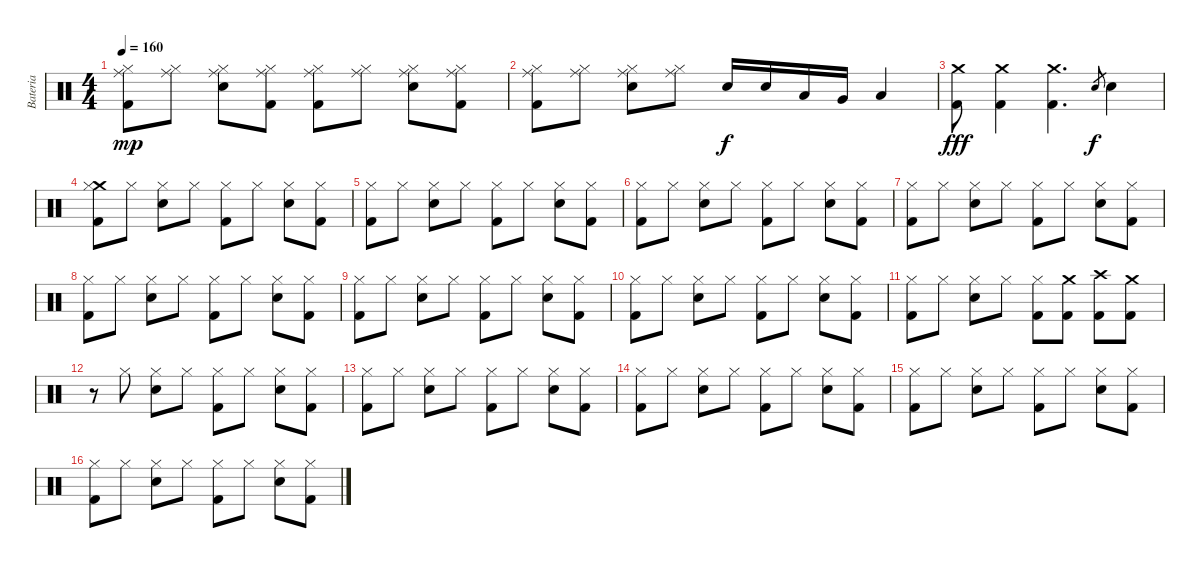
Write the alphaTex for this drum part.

\track ("Bateria" "Bateria") {instrument percussion}
\staff {score}
\articulation defaults
\ts (4 4)
\tempo 160
\clef neutral
\ks c
("Hi-Hat (closed)" "Kick (hit) 2" "Ride (middle)").8{dy mp} ("Hi-Hat (closed)" "Ride (middle)").8 ("Hi-Hat (closed)" "Electric Snare (hit)" "Ride (middle)").8 ("Hi-Hat (closed)" "Kick (hit) 2" "Ride (middle)").8 ("Hi-Hat (closed)" "Kick (hit) 2" "Ride (middle)").8 ("Hi-Hat (closed)" "Ride (middle)").8 ("Hi-Hat (closed)" "Electric Snare (hit)" "Ride (middle)").8 ("Hi-Hat (closed)" "Kick (hit) 2" "Ride (middle)").8 |
("Hi-Hat (closed)" "Kick (hit) 2" "Ride (middle)").8 ("Hi-Hat (closed)" "Ride (middle)").8 ("Hi-Hat (closed)" "Electric Snare (hit)" "Ride (middle)").8 ("Hi-Hat (closed)" "Ride (middle)").8 "Electric Snare (hit)".16{dy f} "Electric Snare (hit)".16 "Low Tom (hit)".16 "Very Low Tom (hit)".16 "Low Tom (hit)".4 |
("Crash medium (hit)" "Kick (hit) 2").8{dy fff} ("Crash medium (hit)" "Kick (hit) 2").4 ("Crash medium (hit)" "Kick (hit) 2").4{d} "Electric Snare (hit)".8{gr dy f} "Electric Snare (hit)".4 |
("Crash medium (hit)" "Hi-Hat (closed)" "Kick (hit) 2").8 "Hi-Hat (closed)".8 ("Hi-Hat (closed)" "Electric Snare (hit)").8 "Hi-Hat (closed)".8 ("Hi-Hat (closed)" "Kick (hit) 2").8 "Hi-Hat (closed)".8 ("Hi-Hat (closed)" "Electric Snare (hit)").8 ("Hi-Hat (closed)" "Kick (hit) 2").8 |
("Hi-Hat (closed)" "Kick (hit) 2").8 "Hi-Hat (closed)".8 ("Hi-Hat (closed)" "Electric Snare (hit)").8 "Hi-Hat (closed)".8 ("Hi-Hat (closed)" "Kick (hit) 2").8 "Hi-Hat (closed)".8 ("Hi-Hat (closed)" "Electric Snare (hit)").8 ("Hi-Hat (closed)" "Kick (hit) 2").8 |
("Hi-Hat (closed)" "Kick (hit) 2").8 "Hi-Hat (closed)".8 ("Hi-Hat (closed)" "Electric Snare (hit)").8 "Hi-Hat (closed)".8 ("Hi-Hat (closed)" "Kick (hit) 2").8 "Hi-Hat (closed)".8 ("Hi-Hat (closed)" "Electric Snare (hit)").8 ("Hi-Hat (closed)" "Kick (hit) 2").8 |
("Hi-Hat (closed)" "Kick (hit) 2").8 "Hi-Hat (closed)".8 ("Hi-Hat (closed)" "Electric Snare (hit)").8 "Hi-Hat (closed)".8 ("Hi-Hat (closed)" "Kick (hit) 2").8 "Hi-Hat (closed)".8 ("Hi-Hat (closed)" "Electric Snare (hit)").8 ("Hi-Hat (closed)" "Kick (hit) 2").8 |
("Hi-Hat (closed)" "Kick (hit) 2").8 "Hi-Hat (closed)".8 ("Hi-Hat (closed)" "Electric Snare (hit)").8 "Hi-Hat (closed)".8 ("Hi-Hat (closed)" "Kick (hit) 2").8 "Hi-Hat (closed)".8 ("Hi-Hat (closed)" "Electric Snare (hit)").8 ("Hi-Hat (closed)" "Kick (hit) 2").8 |
("Hi-Hat (closed)" "Kick (hit) 2").8 "Hi-Hat (closed)".8 ("Hi-Hat (closed)" "Electric Snare (hit)").8 "Hi-Hat (closed)".8 ("Hi-Hat (closed)" "Kick (hit) 2").8 "Hi-Hat (closed)".8 ("Hi-Hat (closed)" "Electric Snare (hit)").8 ("Hi-Hat (closed)" "Kick (hit) 2").8 |
("Hi-Hat (closed)" "Kick (hit) 2").8 "Hi-Hat (closed)".8 ("Hi-Hat (closed)" "Electric Snare (hit)").8 "Hi-Hat (closed)".8 ("Hi-Hat (closed)" "Kick (hit) 2").8 "Hi-Hat (closed)".8 ("Hi-Hat (closed)" "Electric Snare (hit)").8 ("Hi-Hat (closed)" "Kick (hit) 2").8 |
("Hi-Hat (closed)" "Kick (hit) 2").8 "Hi-Hat (closed)".8 ("Hi-Hat (closed)" "Electric Snare (hit)").8 "Hi-Hat (closed)".8 ("Hi-Hat (closed)" "Kick (hit) 2").8 ("Crash medium (hit)" "Kick (hit) 2").8 ("Crash high (hit)" "Kick (hit) 2").8 ("Crash medium (hit)" "Kick (hit) 2").8 |
r.8 "Hi-Hat (closed)".8 ("Hi-Hat (closed)" "Electric Snare (hit)").8 "Hi-Hat (closed)".8 ("Hi-Hat (closed)" "Kick (hit) 2").8 "Hi-Hat (closed)".8 ("Hi-Hat (closed)" "Electric Snare (hit)").8 ("Hi-Hat (closed)" "Kick (hit) 2").8 |
("Hi-Hat (closed)" "Kick (hit) 2").8 "Hi-Hat (closed)".8 ("Hi-Hat (closed)" "Electric Snare (hit)").8 "Hi-Hat (closed)".8 ("Hi-Hat (closed)" "Kick (hit) 2").8 "Hi-Hat (closed)".8 ("Hi-Hat (closed)" "Electric Snare (hit)").8 ("Hi-Hat (closed)" "Kick (hit) 2").8 |
("Hi-Hat (closed)" "Kick (hit) 2").8 "Hi-Hat (closed)".8 ("Hi-Hat (closed)" "Electric Snare (hit)").8 "Hi-Hat (closed)".8 ("Hi-Hat (closed)" "Kick (hit) 2").8 "Hi-Hat (closed)".8 ("Hi-Hat (closed)" "Electric Snare (hit)").8 ("Hi-Hat (closed)" "Kick (hit) 2").8 |
("Hi-Hat (closed)" "Kick (hit) 2").8 "Hi-Hat (closed)".8 ("Hi-Hat (closed)" "Electric Snare (hit)").8 "Hi-Hat (closed)".8 ("Hi-Hat (closed)" "Kick (hit) 2").8 "Hi-Hat (closed)".8 ("Hi-Hat (closed)" "Electric Snare (hit)").8 ("Hi-Hat (closed)" "Kick (hit) 2").8 |
("Hi-Hat (closed)" "Kick (hit) 2").8 "Hi-Hat (closed)".8 ("Hi-Hat (closed)" "Electric Snare (hit)").8 "Hi-Hat (closed)".8 ("Hi-Hat (closed)" "Kick (hit) 2").8 "Hi-Hat (closed)".8 ("Hi-Hat (closed)" "Electric Snare (hit)").8 ("Hi-Hat (closed)" "Kick (hit) 2").8
